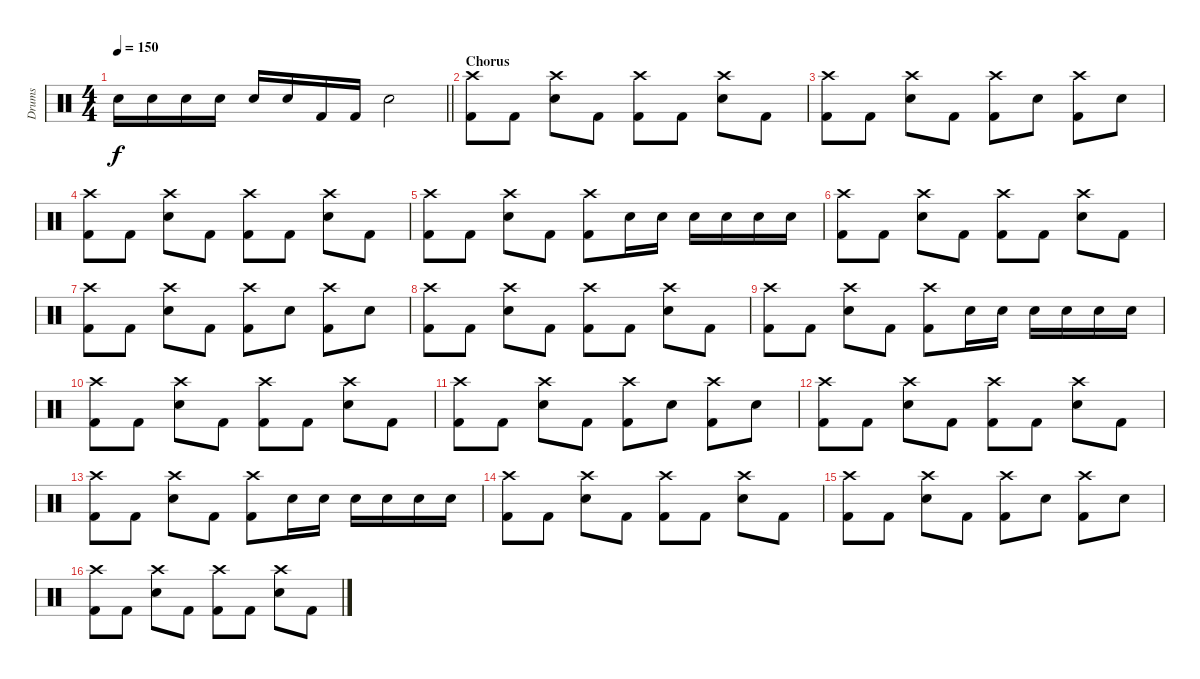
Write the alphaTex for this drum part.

\track ("Drums" "Drums") {instrument percussion}
\staff {score}
\articulation defaults
\ts (4 4)
\tempo 150
\clef neutral
\barLineRight lightlight
\ks c "Snare (hit) 2".16{dy f} "Snare (hit) 2".16 "Snare (hit) 2".16 "Snare (hit) 2".16 "Snare (hit) 2".16 "Snare (hit) 2".16 "Kick (hit) 2".16 "Kick (hit) 2".16 "Snare (hit) 2".2
|
\section ("" "Chorus")
("Kick (hit) 2" "Crash high (hit)").8 "Kick (hit) 2".8 ("Snare (hit) 2" "Crash high (hit)").8 "Kick (hit) 2".8 ("Kick (hit) 2" "Crash high (hit)").8 "Kick (hit) 2".8 ("Snare (hit) 2" "Crash high (hit)").8 "Kick (hit) 2".8 |
("Kick (hit) 2" "Crash high (hit)").8 "Kick (hit) 2".8 ("Snare (hit) 2" "Crash high (hit)").8 "Kick (hit) 2".8 ("Kick (hit) 2" "Crash high (hit)").8 "Snare (hit) 2".8 ("Kick (hit) 2" "Crash high (hit)").8 "Snare (hit) 2".8 |
("Kick (hit) 2" "Crash high (hit)").8 "Kick (hit) 2".8 ("Snare (hit) 2" "Crash high (hit)").8 "Kick (hit) 2".8 ("Kick (hit) 2" "Crash high (hit)").8 "Kick (hit) 2".8 ("Snare (hit) 2" "Crash high (hit)").8 "Kick (hit) 2".8 |
("Kick (hit) 2" "Crash high (hit)").8 "Kick (hit) 2".8 ("Snare (hit) 2" "Crash high (hit)").8 "Kick (hit) 2".8 ("Kick (hit) 2" "Crash high (hit)").8 "Snare (hit) 2".16 "Snare (hit) 2".16 "Snare (hit) 2".16 "Snare (hit) 2".16 "Snare (hit) 2".16 "Snare (hit) 2".16 |
("Kick (hit) 2" "Crash high (hit)").8 "Kick (hit) 2".8 ("Snare (hit) 2" "Crash high (hit)").8 "Kick (hit) 2".8 ("Kick (hit) 2" "Crash high (hit)").8 "Kick (hit) 2".8 ("Snare (hit) 2" "Crash high (hit)").8 "Kick (hit) 2".8 |
("Kick (hit) 2" "Crash high (hit)").8 "Kick (hit) 2".8 ("Snare (hit) 2" "Crash high (hit)").8 "Kick (hit) 2".8 ("Kick (hit) 2" "Crash high (hit)").8 "Snare (hit) 2".8 ("Kick (hit) 2" "Crash high (hit)").8 "Snare (hit) 2".8 |
("Kick (hit) 2" "Crash high (hit)").8 "Kick (hit) 2".8 ("Snare (hit) 2" "Crash high (hit)").8 "Kick (hit) 2".8 ("Kick (hit) 2" "Crash high (hit)").8 "Kick (hit) 2".8 ("Snare (hit) 2" "Crash high (hit)").8 "Kick (hit) 2".8 |
("Kick (hit) 2" "Crash high (hit)").8 "Kick (hit) 2".8 ("Snare (hit) 2" "Crash high (hit)").8 "Kick (hit) 2".8 ("Kick (hit) 2" "Crash high (hit)").8 "Snare (hit) 2".16 "Snare (hit) 2".16 "Snare (hit) 2".16 "Snare (hit) 2".16 "Snare (hit) 2".16 "Snare (hit) 2".16 |
("Kick (hit) 2" "Crash high (hit)").8 "Kick (hit) 2".8 ("Snare (hit) 2" "Crash high (hit)").8 "Kick (hit) 2".8 ("Kick (hit) 2" "Crash high (hit)").8 "Kick (hit) 2".8 ("Snare (hit) 2" "Crash high (hit)").8 "Kick (hit) 2".8 |
("Kick (hit) 2" "Crash high (hit)").8 "Kick (hit) 2".8 ("Snare (hit) 2" "Crash high (hit)").8 "Kick (hit) 2".8 ("Kick (hit) 2" "Crash high (hit)").8 "Snare (hit) 2".8 ("Kick (hit) 2" "Crash high (hit)").8 "Snare (hit) 2".8 |
("Kick (hit) 2" "Crash high (hit)").8 "Kick (hit) 2".8 ("Snare (hit) 2" "Crash high (hit)").8 "Kick (hit) 2".8 ("Kick (hit) 2" "Crash high (hit)").8 "Kick (hit) 2".8 ("Snare (hit) 2" "Crash high (hit)").8 "Kick (hit) 2".8 |
("Kick (hit) 2" "Crash high (hit)").8 "Kick (hit) 2".8 ("Snare (hit) 2" "Crash high (hit)").8 "Kick (hit) 2".8 ("Kick (hit) 2" "Crash high (hit)").8 "Snare (hit) 2".16 "Snare (hit) 2".16 "Snare (hit) 2".16 "Snare (hit) 2".16 "Snare (hit) 2".16 "Snare (hit) 2".16 |
("Kick (hit) 2" "Crash high (hit)").8 "Kick (hit) 2".8 ("Snare (hit) 2" "Crash high (hit)").8 "Kick (hit) 2".8 ("Kick (hit) 2" "Crash high (hit)").8 "Kick (hit) 2".8 ("Snare (hit) 2" "Crash high (hit)").8 "Kick (hit) 2".8 |
("Kick (hit) 2" "Crash high (hit)").8 "Kick (hit) 2".8 ("Snare (hit) 2" "Crash high (hit)").8 "Kick (hit) 2".8 ("Kick (hit) 2" "Crash high (hit)").8 "Snare (hit) 2".8 ("Kick (hit) 2" "Crash high (hit)").8 "Snare (hit) 2".8 |
("Kick (hit) 2" "Crash high (hit)").8 "Kick (hit) 2".8 ("Snare (hit) 2" "Crash high (hit)").8 "Kick (hit) 2".8 ("Kick (hit) 2" "Crash high (hit)").8 "Kick (hit) 2".8 ("Snare (hit) 2" "Crash high (hit)").8 "Kick (hit) 2".8
